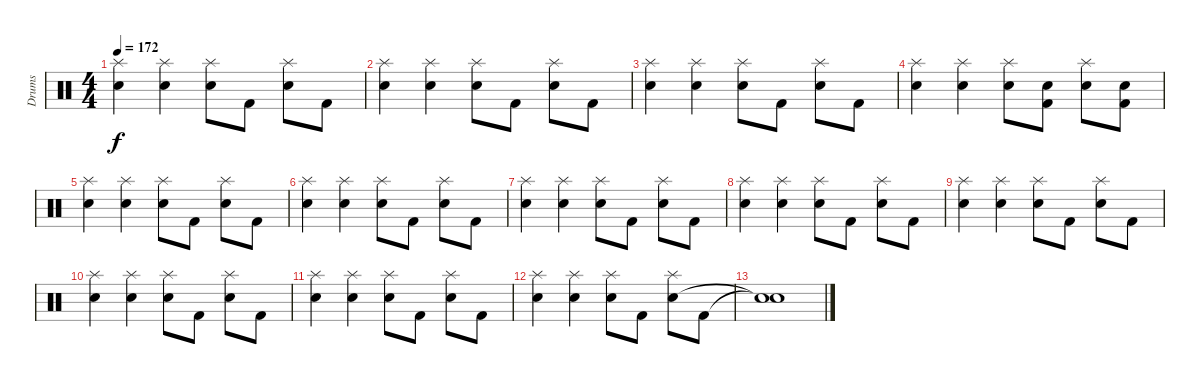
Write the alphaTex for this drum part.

\track ("Drums" "Drums") {instrument percussion}
\staff {score}
\articulation defaults
\ts (4 4)
\tempo 172
\clef neutral
\ks c
("Splash (hit)" "Snare (hit) 2").4{dy f} ("Splash (hit)" "Snare (hit) 2").4 ("Splash (hit)" "Snare (hit) 2").8 "Kick (hit) 2".8 ("Splash (hit)" "Snare (hit) 2").8 "Kick (hit) 2".8 |
("Splash (hit)" "Snare (hit) 2").4 ("Splash (hit)" "Snare (hit) 2").4 ("Splash (hit)" "Snare (hit) 2").8 "Kick (hit) 2".8 ("Splash (hit)" "Snare (hit) 2").8 "Kick (hit) 2".8 |
("Splash (hit)" "Snare (hit) 2").4 ("Splash (hit)" "Snare (hit) 2").4 ("Splash (hit)" "Snare (hit) 2").8 "Kick (hit) 2".8 ("Splash (hit)" "Snare (hit) 2").8 "Kick (hit) 2".8 |
("Splash (hit)" "Snare (hit) 2").4 ("Splash (hit)" "Snare (hit) 2").4 ("Splash (hit)" "Snare (hit) 2").8 ("Snare (hit) 2" "Kick (hit) 2").8 ("Splash (hit)" "Snare (hit) 2").8 ("Snare (hit) 2" "Kick (hit) 2").8 |
("Splash (hit)" "Snare (hit) 2").4 ("Splash (hit)" "Snare (hit) 2").4 ("Splash (hit)" "Snare (hit) 2").8 "Kick (hit) 2".8 ("Splash (hit)" "Snare (hit) 2").8 "Kick (hit) 2".8 |
("Splash (hit)" "Snare (hit) 2").4 ("Splash (hit)" "Snare (hit) 2").4 ("Splash (hit)" "Snare (hit) 2").8 "Kick (hit) 2".8 ("Splash (hit)" "Snare (hit) 2").8 "Kick (hit) 2".8 |
("Splash (hit)" "Snare (hit) 2").4 ("Splash (hit)" "Snare (hit) 2").4 ("Splash (hit)" "Snare (hit) 2").8 "Kick (hit) 2".8 ("Splash (hit)" "Snare (hit) 2").8 "Kick (hit) 2".8 |
("Splash (hit)" "Snare (hit) 2").4 ("Splash (hit)" "Snare (hit) 2").4 ("Splash (hit)" "Snare (hit) 2").8 "Kick (hit) 2".8 ("Splash (hit)" "Snare (hit) 2").8 "Kick (hit) 2".8 |
("Splash (hit)" "Snare (hit) 2").4 ("Splash (hit)" "Snare (hit) 2").4 ("Splash (hit)" "Snare (hit) 2").8 "Kick (hit) 2".8 ("Splash (hit)" "Snare (hit) 2").8 "Kick (hit) 2".8 |
("Splash (hit)" "Snare (hit) 2").4 ("Splash (hit)" "Snare (hit) 2").4 ("Splash (hit)" "Snare (hit) 2").8 "Kick (hit) 2".8 ("Splash (hit)" "Snare (hit) 2").8 "Kick (hit) 2".8 |
("Splash (hit)" "Snare (hit) 2").4 ("Splash (hit)" "Snare (hit) 2").4 ("Splash (hit)" "Snare (hit) 2").8 "Kick (hit) 2".8 ("Splash (hit)" "Snare (hit) 2").8 "Kick (hit) 2".8 |
("Splash (hit)" "Snare (hit) 2").4 ("Splash (hit)" "Snare (hit) 2").4 ("Splash (hit)" "Snare (hit) 2").8 "Kick (hit) 2".8 ("Splash (hit)" "Snare (hit) 2").8 "Kick (hit) 2".8 |
("Snare (hit)"{t} "Snare (hit)"{t}).1
